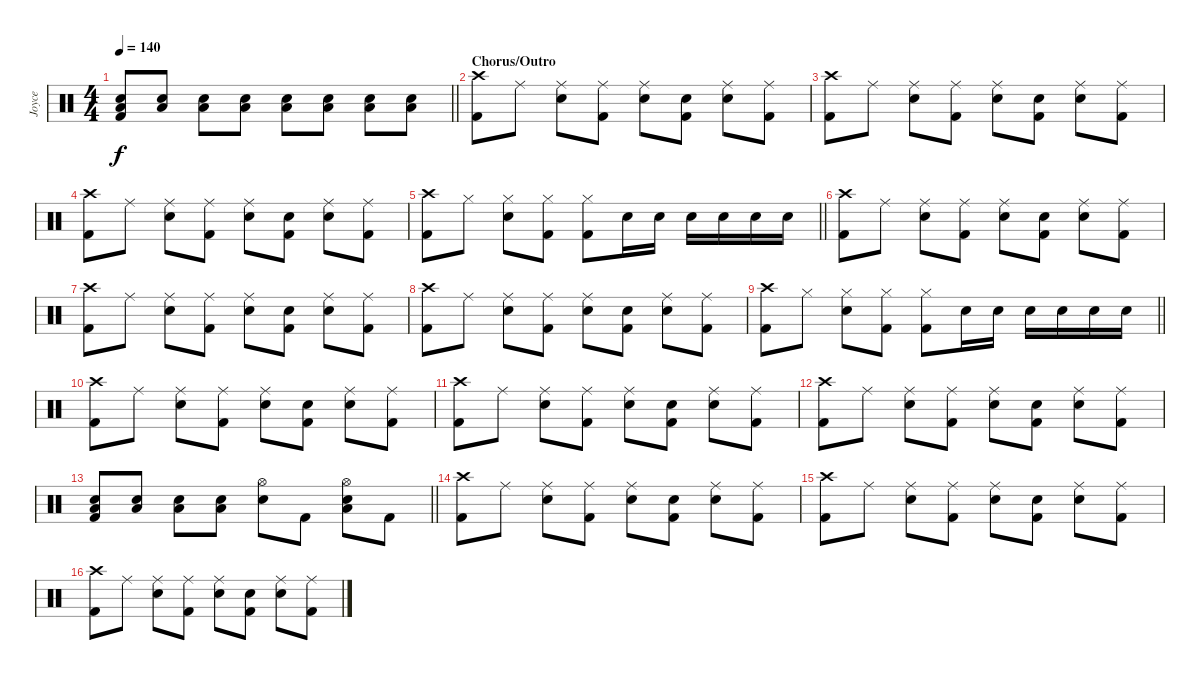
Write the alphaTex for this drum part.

\track ("Joyce" "Joyce") {instrument percussion}
\staff {score}
\articulation defaults
\ts (4 4)
\tempo 140
\clef neutral
\barLineRight lightlight
\ks c
("Low Tom (hit)" "Snare (hit) 2" "Kick (hit) 2").8{dy f} ("Low Tom (hit)" "Snare (hit) 2").8 ("Low Tom (hit)" "Snare (hit) 2").8 ("Low Tom (hit)" "Snare (hit) 2").8 ("Low Tom (hit)" "Snare (hit) 2").8 ("Low Tom (hit)" "Snare (hit) 2").8 ("Low Tom (hit)" "Snare (hit) 2").8 ("Low Tom (hit)" "Snare (hit) 2").8 |
\section ("" "Chorus/Outro")
("Crash high (hit)" "Kick (hit) 2").8 "Ride (middle)".8 ("Ride (middle)" "Snare (hit) 2").8 ("Ride (middle)" "Kick (hit) 2").8 ("Ride (middle)" "Snare (hit) 2").8 ("Snare (hit)" "Kick (hit) 2").8 ("Ride (middle)" "Snare (hit) 2").8 ("Ride (middle)" "Kick (hit) 2").8 |
("Crash high (hit)" "Kick (hit) 2").8 "Ride (middle)".8 ("Ride (middle)" "Snare (hit) 2").8 ("Ride (middle)" "Kick (hit) 2").8 ("Ride (middle)" "Snare (hit) 2").8 ("Snare (hit)" "Kick (hit) 2").8 ("Ride (middle)" "Snare (hit) 2").8 ("Ride (middle)" "Kick (hit) 2").8 |
("Crash high (hit)" "Kick (hit) 2").8 "Ride (middle)".8 ("Ride (middle)" "Snare (hit) 2").8 ("Ride (middle)" "Kick (hit) 2").8 ("Ride (middle)" "Snare (hit) 2").8 ("Snare (hit)" "Kick (hit) 2").8 ("Ride (middle)" "Snare (hit) 2").8 ("Ride (middle)" "Kick (hit) 2").8 |
\barLineRight lightlight
("Crash high (hit)" "Kick (hit) 2").8 "Hi-Hat (closed)".8 ("Hi-Hat (closed)" "Snare (hit) 2").8 ("Hi-Hat (closed)" "Kick (hit) 2").8 ("Hi-Hat (closed)" "Kick (hit) 2").8 "Snare (hit) 2".16 "Snare (hit) 2".16 "Snare (hit) 2".16 "Snare (hit) 2".16 "Snare (hit) 2".16 "Snare (hit) 2".16 |
("Crash high (hit)" "Kick (hit) 2").8 "Ride (middle)".8 ("Ride (middle)" "Snare (hit) 2").8 ("Ride (middle)" "Kick (hit) 2").8 ("Ride (middle)" "Snare (hit) 2").8 ("Snare (hit)" "Kick (hit) 2").8 ("Ride (middle)" "Snare (hit) 2").8 ("Ride (middle)" "Kick (hit) 2").8 |
("Crash high (hit)" "Kick (hit) 2").8 "Ride (middle)".8 ("Ride (middle)" "Snare (hit) 2").8 ("Ride (middle)" "Kick (hit) 2").8 ("Ride (middle)" "Snare (hit) 2").8 ("Snare (hit)" "Kick (hit) 2").8 ("Ride (middle)" "Snare (hit) 2").8 ("Ride (middle)" "Kick (hit) 2").8 |
("Crash high (hit)" "Kick (hit) 2").8 "Ride (middle)".8 ("Ride (middle)" "Snare (hit) 2").8 ("Ride (middle)" "Kick (hit) 2").8 ("Ride (middle)" "Snare (hit) 2").8 ("Snare (hit)" "Kick (hit) 2").8 ("Ride (middle)" "Snare (hit) 2").8 ("Ride (middle)" "Kick (hit) 2").8 |
\barLineRight lightlight
("Crash high (hit)" "Kick (hit) 2").8 "Hi-Hat (closed)".8 ("Hi-Hat (closed)" "Snare (hit) 2").8 ("Hi-Hat (closed)" "Kick (hit) 2").8 ("Hi-Hat (closed)" "Kick (hit) 2").8 "Snare (hit) 2".16 "Snare (hit) 2".16 "Snare (hit) 2".16 "Snare (hit) 2".16 "Snare (hit) 2".16 "Snare (hit) 2".16 |
("Crash high (hit)" "Kick (hit) 2").8 "Ride (middle)".8 ("Ride (middle)" "Snare (hit) 2").8 ("Ride (middle)" "Kick (hit) 2").8 ("Ride (middle)" "Snare (hit) 2").8 ("Snare (hit)" "Kick (hit) 2").8 ("Ride (middle)" "Snare (hit) 2").8 ("Ride (middle)" "Kick (hit) 2").8 |
("Crash high (hit)" "Kick (hit) 2").8 "Ride (middle)".8 ("Ride (middle)" "Snare (hit) 2").8 ("Ride (middle)" "Kick (hit) 2").8 ("Ride (middle)" "Snare (hit) 2").8 ("Snare (hit)" "Kick (hit) 2").8 ("Ride (middle)" "Snare (hit) 2").8 ("Ride (middle)" "Kick (hit) 2").8 |
("Crash high (hit)" "Kick (hit) 2").8 "Ride (middle)".8 ("Ride (middle)" "Snare (hit) 2").8 ("Ride (middle)" "Kick (hit) 2").8 ("Ride (middle)" "Snare (hit) 2").8 ("Snare (hit)" "Kick (hit) 2").8 ("Ride (middle)" "Snare (hit) 2").8 ("Ride (middle)" "Kick (hit) 2").8 |
\barLineRight lightlight
("Low Tom (hit)" "Snare (hit) 2" "Kick (hit) 2").8 ("Low Tom (hit)" "Snare (hit) 2").8 ("Low Tom (hit)" "Snare (hit) 2").8 ("Low Tom (hit)" "Snare (hit) 2").8 ("Hi-Hat (open)" "Snare (hit) 2").8 "Kick (hit) 2".8 ("Hi-Hat (open)" "Low Tom (hit)" "Snare (hit) 2").8 "Kick (hit) 2".8 |
("Crash high (hit)" "Kick (hit) 2").8 "Ride (middle)".8 ("Ride (middle)" "Snare (hit) 2").8 ("Ride (middle)" "Kick (hit) 2").8 ("Ride (middle)" "Snare (hit) 2").8 ("Snare (hit)" "Kick (hit) 2").8 ("Ride (middle)" "Snare (hit) 2").8 ("Ride (middle)" "Kick (hit) 2").8 |
("Crash high (hit)" "Kick (hit) 2").8 "Ride (middle)".8 ("Ride (middle)" "Snare (hit) 2").8 ("Ride (middle)" "Kick (hit) 2").8 ("Ride (middle)" "Snare (hit) 2").8 ("Snare (hit)" "Kick (hit) 2").8 ("Ride (middle)" "Snare (hit) 2").8 ("Ride (middle)" "Kick (hit) 2").8 |
("Crash high (hit)" "Kick (hit) 2").8 "Ride (middle)".8 ("Ride (middle)" "Snare (hit) 2").8 ("Ride (middle)" "Kick (hit) 2").8 ("Ride (middle)" "Snare (hit) 2").8 ("Snare (hit)" "Kick (hit) 2").8 ("Ride (middle)" "Snare (hit) 2").8 ("Ride (middle)" "Kick (hit) 2").8
